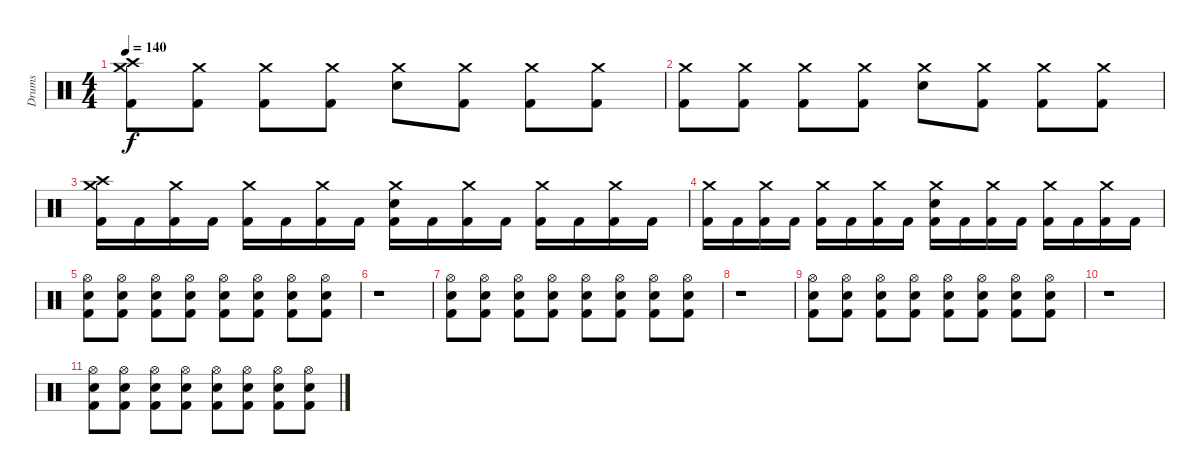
\track ("Drums" "Drums") {instrument percussion}
\staff {score}
\articulation defaults
\ts (4 4)
\tempo 140
\clef neutral
\ks c
("Crash high (hit)" "Crash medium (hit)" "Kick (hit) 2").8{dy f} ("Crash medium (hit)" "Kick (hit) 2").8 ("Crash medium (hit)" "Kick (hit) 2").8 ("Crash medium (hit)" "Kick (hit) 2").8 ("Crash medium (hit)" "Snare (hit) 2").8 ("Crash medium (hit)" "Kick (hit) 2").8 ("Crash medium (hit)" "Kick (hit) 2").8 ("Crash medium (hit)" "Kick (hit) 2").8 |
("Crash medium (hit)" "Kick (hit) 2").8 ("Crash medium (hit)" "Kick (hit) 2").8 ("Crash medium (hit)" "Kick (hit) 2").8 ("Crash medium (hit)" "Kick (hit) 2").8 ("Crash medium (hit)" "Snare (hit) 2").8 ("Crash medium (hit)" "Kick (hit) 2").8 ("Crash medium (hit)" "Kick (hit) 2").8 ("Crash medium (hit)" "Kick (hit) 2").8 |
("Crash high (hit)" "Crash medium (hit)" "Kick (hit) 2").16 "Kick (hit) 2".16 ("Crash medium (hit)" "Kick (hit) 2").16 "Kick (hit) 2".16 ("Crash medium (hit)" "Kick (hit) 2").16 "Kick (hit) 2".16 ("Crash medium (hit)" "Kick (hit) 2").16 "Kick (hit) 2".16 ("Crash medium (hit)" "Snare (hit) 2" "Kick (hit) 2").16 "Kick (hit) 2".16 ("Crash medium (hit)" "Kick (hit) 2").16 "Kick (hit) 2".16 ("Crash medium (hit)" "Kick (hit) 2").16 "Kick (hit) 2".16 ("Crash medium (hit)" "Kick (hit) 2").16 "Kick (hit) 2".16 |
("Crash medium (hit)" "Kick (hit) 2").16 "Kick (hit) 2".16 ("Crash medium (hit)" "Kick (hit) 2").16 "Kick (hit) 2".16 ("Crash medium (hit)" "Kick (hit) 2").16 "Kick (hit) 2".16 ("Crash medium (hit)" "Kick (hit) 2").16 "Kick (hit) 2".16 ("Crash medium (hit)" "Snare (hit) 2" "Kick (hit) 2").16 "Kick (hit) 2".16 ("Crash medium (hit)" "Kick (hit) 2").16 "Kick (hit) 2".16 ("Crash medium (hit)" "Kick (hit) 2").16 "Kick (hit) 2".16 ("Crash medium (hit)" "Kick (hit) 2").16 "Kick (hit) 2".16 |
("Hi-Hat (open)" "Snare (hit) 2" "Kick (hit) 2").8 ("Hi-Hat (open)" "Snare (hit) 2" "Kick (hit) 2").8 ("Hi-Hat (open)" "Snare (hit) 2" "Kick (hit) 2").8 ("Hi-Hat (open)" "Snare (hit) 2" "Kick (hit) 2").8 ("Hi-Hat (open)" "Snare (hit) 2" "Kick (hit) 2").8 ("Hi-Hat (open)" "Snare (hit) 2" "Kick (hit) 2").8 ("Hi-Hat (open)" "Snare (hit) 2" "Kick (hit) 2").8 ("Hi-Hat (open)" "Snare (hit) 2" "Kick (hit) 2").8 |
r.1 |
("Hi-Hat (open)" "Snare (hit) 2" "Kick (hit) 2").8 ("Hi-Hat (open)" "Snare (hit) 2" "Kick (hit) 2").8 ("Hi-Hat (open)" "Snare (hit) 2" "Kick (hit) 2").8 ("Hi-Hat (open)" "Snare (hit) 2" "Kick (hit) 2").8 ("Hi-Hat (open)" "Snare (hit) 2" "Kick (hit) 2").8 ("Hi-Hat (open)" "Snare (hit) 2" "Kick (hit) 2").8 ("Hi-Hat (open)" "Snare (hit) 2" "Kick (hit) 2").8 ("Hi-Hat (open)" "Snare (hit) 2" "Kick (hit) 2").8 |
r.1 |
("Hi-Hat (open)" "Snare (hit) 2" "Kick (hit) 2").8 ("Hi-Hat (open)" "Snare (hit) 2" "Kick (hit) 2").8 ("Hi-Hat (open)" "Snare (hit) 2" "Kick (hit) 2").8 ("Hi-Hat (open)" "Snare (hit) 2" "Kick (hit) 2").8 ("Hi-Hat (open)" "Snare (hit) 2" "Kick (hit) 2").8 ("Hi-Hat (open)" "Snare (hit) 2" "Kick (hit) 2").8 ("Hi-Hat (open)" "Snare (hit) 2" "Kick (hit) 2").8 ("Hi-Hat (open)" "Snare (hit) 2" "Kick (hit) 2").8 |
r.1 |
("Hi-Hat (open)" "Snare (hit) 2" "Kick (hit) 2").8 ("Hi-Hat (open)" "Snare (hit) 2" "Kick (hit) 2").8 ("Hi-Hat (open)" "Snare (hit) 2" "Kick (hit) 2").8 ("Hi-Hat (open)" "Snare (hit) 2" "Kick (hit) 2").8 ("Hi-Hat (open)" "Snare (hit) 2" "Kick (hit) 2").8 ("Hi-Hat (open)" "Snare (hit) 2" "Kick (hit) 2").8 ("Hi-Hat (open)" "Snare (hit) 2" "Kick (hit) 2").8 ("Hi-Hat (open)" "Snare (hit) 2" "Kick (hit) 2").8
